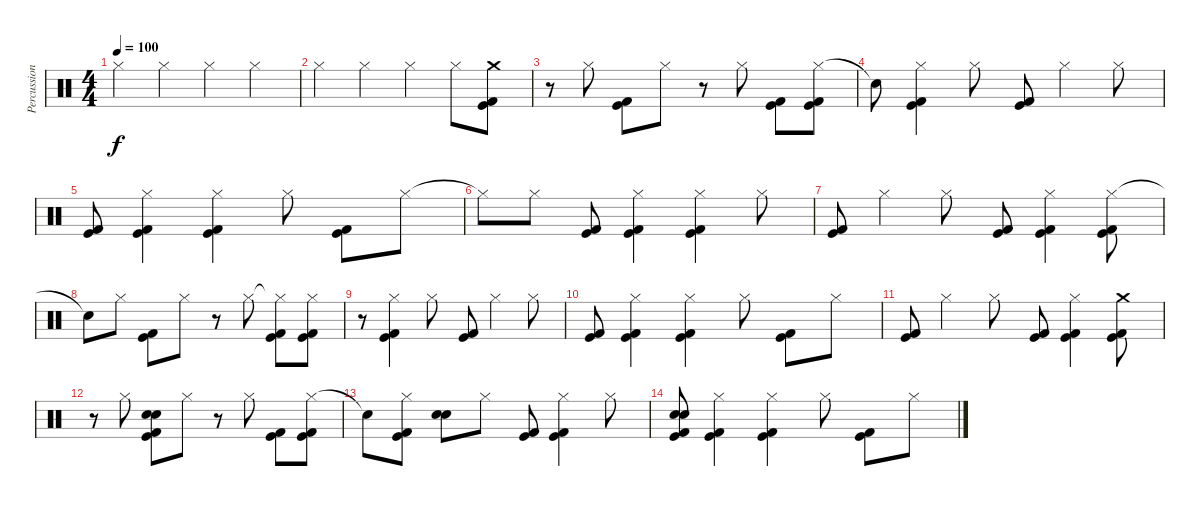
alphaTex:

\track ("Percussion" "Percussion") {instrument percussion}
\staff {score}
\articulation defaults
\ts (4 4)
\tempo 100
\clef neutral
\ks c "Hi-Hat (closed)".4{dy f} "Hi-Hat (closed)".4 "Hi-Hat (closed)".4 "Hi-Hat (closed)".4
|
"Hi-Hat (closed)".4 "Hi-Hat (closed)".4 "Hi-Hat (closed)".4 "Hi-Hat (closed)".8 ("Crash medium (hit)" "Kick (hit) 2" "Kick (hit)").8 |
r.8 "Hi-Hat (closed)".8 ("Kick (hit) 2" "Kick (hit)").8 "Hi-Hat (closed)".8 r.8 "Hi-Hat (closed)".8 ("Kick (hit) 2" "Kick (hit)").8 ("Hi-Hat (closed)" "Kick (hit) 2" "Kick (hit)").8 |
"Snare (hit)"{t}.8 ("Hi-Hat (closed)" "Kick (hit) 2" "Kick (hit)").4 "Hi-Hat (closed)".8 ("Kick (hit) 2" "Kick (hit)").8 "Hi-Hat (closed)".4 "Hi-Hat (closed)".8 |
("Kick (hit) 2" "Kick (hit)").8 ("Hi-Hat (closed)" "Kick (hit) 2" "Kick (hit)").4 ("Hi-Hat (closed)" "Kick (hit) 2" "Kick (hit)").4 "Hi-Hat (closed)".8 ("Kick (hit) 2" "Kick (hit)").8 "Hi-Hat (closed)".8 |
"Hi-Hat (closed)"{t}.8 "Hi-Hat (closed)".8 ("Kick (hit) 2" "Kick (hit)").8 ("Hi-Hat (closed)" "Kick (hit) 2" "Kick (hit)").4 ("Hi-Hat (closed)" "Kick (hit) 2" "Kick (hit)").4 "Hi-Hat (closed)".8 |
("Kick (hit) 2" "Kick (hit)").8 "Hi-Hat (closed)".4 "Hi-Hat (closed)".8 ("Kick (hit) 2" "Kick (hit)").8 ("Hi-Hat (closed)" "Kick (hit) 2" "Kick (hit)").4 ("Hi-Hat (closed)" "Kick (hit) 2" "Kick (hit)").8 |
"Snare (hit)"{t}.8 "Hi-Hat (closed)".8 ("Kick (hit) 2" "Kick (hit)").8 "Hi-Hat (closed)".8 r.8 "Hi-Hat (closed)".8 ("Hi-Hat (closed)"{t} "Kick (hit) 2" "Kick (hit)").8 ("Hi-Hat (closed)" "Kick (hit) 2" "Kick (hit)").8 |
r.8 ("Hi-Hat (closed)" "Kick (hit) 2" "Kick (hit)").4 "Hi-Hat (closed)".8 ("Kick (hit) 2" "Kick (hit)").8 "Hi-Hat (closed)".4 "Hi-Hat (closed)".8 |
("Kick (hit) 2" "Kick (hit)").8 ("Hi-Hat (closed)" "Kick (hit) 2" "Kick (hit)").4 ("Hi-Hat (closed)" "Kick (hit) 2" "Kick (hit)").4 "Hi-Hat (closed)".8 ("Kick (hit) 2" "Kick (hit)").8 "Hi-Hat (closed)".8 |
("Kick (hit) 2" "Kick (hit)").8 "Hi-Hat (closed)".4 "Hi-Hat (closed)".8 ("Kick (hit) 2" "Kick (hit)").8 ("Hi-Hat (closed)" "Kick (hit) 2" "Kick (hit)").4 ("Crash medium (hit)" "Kick (hit) 2" "Kick (hit)").8 |
r.8 "Hi-Hat (closed)".8 ("Electric Snare (hit)" "Snare (hit) 2" "Kick (hit) 2" "Kick (hit)").8 "Hi-Hat (closed)".8 r.8 "Hi-Hat (closed)".8 ("Kick (hit) 2" "Kick (hit)").8 ("Hi-Hat (closed)" "Kick (hit) 2" "Kick (hit)").8 |
"Snare (hit)"{t}.8 ("Hi-Hat (closed)" "Kick (hit) 2" "Kick (hit)").8 ("Electric Snare (hit)" "Snare (hit) 2").8 "Hi-Hat (closed)".8 ("Kick (hit) 2" "Kick (hit)").8 ("Hi-Hat (closed)" "Kick (hit) 2" "Kick (hit)").4 "Hi-Hat (closed)".8 |
("Electric Snare (hit)" "Snare (hit) 2" "Kick (hit) 2" "Kick (hit)").8 ("Hi-Hat (closed)" "Kick (hit) 2" "Kick (hit)").4 ("Hi-Hat (closed)" "Kick (hit) 2" "Kick (hit)").4 "Hi-Hat (closed)".8 ("Kick (hit) 2" "Kick (hit)").8 "Hi-Hat (closed)".8
